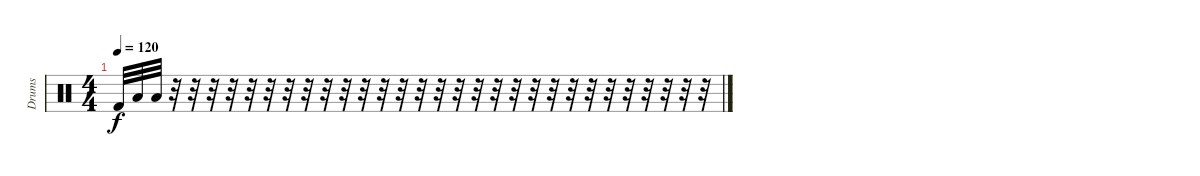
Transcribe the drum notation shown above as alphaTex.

\track ("Drums" "Drums") {instrument percussion}
\staff {score}
\articulation defaults
\ts (4 4)
\tempo 120
\clef neutral
\ks c "Kick (hit) 2".32{dy f} "Low Floor Tom (hit)".32 "Low Floor Tom (hit)".32
r.32 r.32 r.32 r.32 r.32 r.32 r.32 r.32 r.32 r.32 r.32 r.32 r.32 r.32 r.32 r.32 r.32 r.32 r.32 r.32 r.32 r.32 r.32 r.32 r.32 r.32 r.32 r.32 r.32
